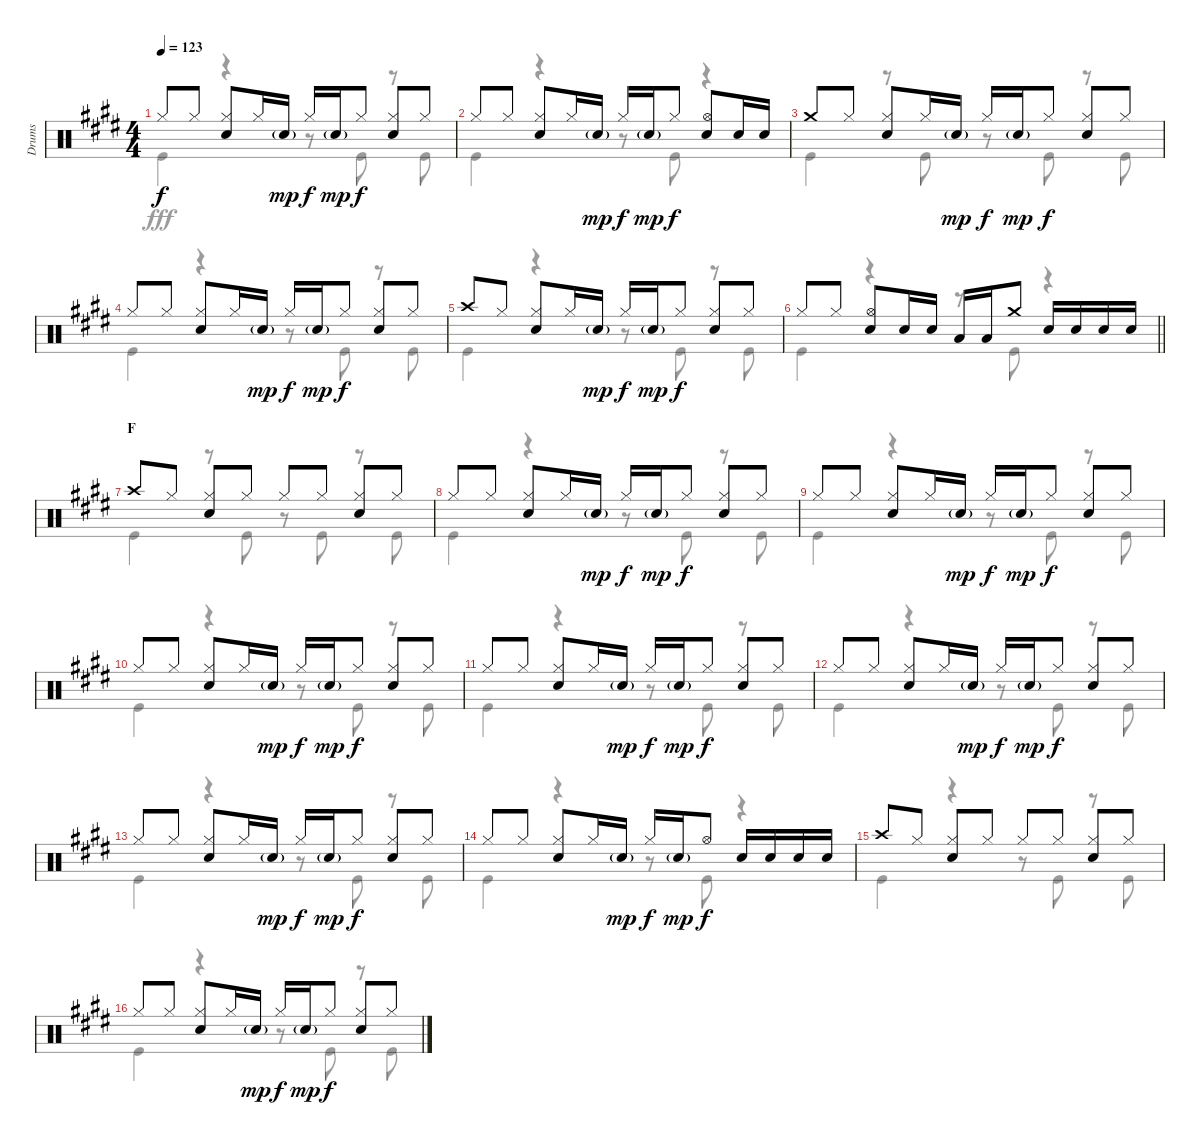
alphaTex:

\track ("Drums" "Drums") {instrument percussion}
\staff {score}
\articulation defaults
\voice
\ts (4 4)
\tempo 123
\clef neutral
\ks e "Hi-Hat (closed)".8{dy f} "Hi-Hat (closed)".8
("Hi-Hat (closed)" "Snare (hit) 2").8 "Hi-Hat (closed)".16 "Snare (hit) 2"{g}.16{dy mp} "Hi-Hat (closed)".16{dy f} "Snare (hit) 2"{g}.16{dy mp} "Hi-Hat (closed)".8{dy f} ("Hi-Hat (closed)" "Snare (hit) 2").8 "Hi-Hat (closed)".8 |
"Hi-Hat (closed)".8 "Hi-Hat (closed)".8 ("Hi-Hat (closed)" "Snare (hit) 2").8 "Hi-Hat (closed)".16 "Snare (hit) 2"{g}.16{dy mp} "Hi-Hat (closed)".16{dy f} "Snare (hit) 2"{g}.16{dy mp} "Hi-Hat (closed)".8{dy f} ("Hi-Hat (open)" "Snare (hit) 2").8 "Snare (hit) 2".16 "Snare (hit) 2".16 |
"Crash medium (hit)".8 "Hi-Hat (closed)".8 ("Hi-Hat (closed)" "Snare (hit) 2").8 "Hi-Hat (closed)".16 "Snare (hit) 2"{g}.16{dy mp} "Hi-Hat (closed)".16{dy f} "Snare (hit) 2"{g}.16{dy mp} "Hi-Hat (closed)".8{dy f} ("Hi-Hat (closed)" "Snare (hit) 2").8 "Hi-Hat (closed)".8 |
"Hi-Hat (closed)".8 "Hi-Hat (closed)".8 ("Hi-Hat (closed)" "Snare (hit) 2").8 "Hi-Hat (closed)".16 "Snare (hit) 2"{g}.16{dy mp} "Hi-Hat (closed)".16{dy f} "Snare (hit) 2"{g}.16{dy mp} "Hi-Hat (closed)".8{dy f} ("Hi-Hat (closed)" "Snare (hit) 2").8 "Hi-Hat (closed)".8 |
"Crash high (hit)".8 "Hi-Hat (closed)".8 ("Hi-Hat (closed)" "Snare (hit) 2").8 "Hi-Hat (closed)".16 "Snare (hit) 2"{g}.16{dy mp} "Hi-Hat (closed)".16{dy f} "Snare (hit) 2"{g}.16{dy mp} "Hi-Hat (closed)".8{dy f} ("Hi-Hat (closed)" "Snare (hit) 2").8 "Hi-Hat (closed)".8 |
\barLineRight lightlight "Hi-Hat (closed)".8 "Hi-Hat (closed)".8
("Hi-Hat (open)" "Snare (hit) 2").8 "Snare (hit) 2".16 "Snare (hit) 2".16 "Low Tom (hit)".16 "Low Tom (hit)".16 "Crash medium (hit)".8 "Snare (hit) 2".16 "Snare (hit) 2".16 "Snare (hit) 2".16 "Snare (hit) 2".16 |
\section ("" "F")
"Crash high (hit)".8 "Hi-Hat (closed)".8 ("Hi-Hat (closed)" "Snare (hit) 2").8 "Hi-Hat (closed)".8 "Hi-Hat (closed)".8 "Hi-Hat (closed)".8 ("Hi-Hat (closed)" "Snare (hit) 2").8 "Hi-Hat (closed)".8 |
"Hi-Hat (closed)".8 "Hi-Hat (closed)".8 ("Hi-Hat (closed)" "Snare (hit) 2").8 "Hi-Hat (closed)".16 "Snare (hit) 2"{g}.16{dy mp} "Hi-Hat (closed)".16{dy f} "Snare (hit) 2"{g}.16{dy mp} "Hi-Hat (closed)".8{dy f} ("Hi-Hat (closed)" "Snare (hit) 2").8 "Hi-Hat (closed)".8 |
"Hi-Hat (closed)".8 "Hi-Hat (closed)".8 ("Hi-Hat (closed)" "Snare (hit) 2").8 "Hi-Hat (closed)".16 "Snare (hit) 2"{g}.16{dy mp} "Hi-Hat (closed)".16{dy f} "Snare (hit) 2"{g}.16{dy mp} "Hi-Hat (closed)".8{dy f} ("Hi-Hat (closed)" "Snare (hit) 2").8 "Hi-Hat (closed)".8 |
"Hi-Hat (closed)".8 "Hi-Hat (closed)".8 ("Hi-Hat (closed)" "Snare (hit) 2").8 "Hi-Hat (closed)".16 "Snare (hit) 2"{g}.16{dy mp} "Hi-Hat (closed)".16{dy f} "Snare (hit) 2"{g}.16{dy mp} "Hi-Hat (closed)".8{dy f} ("Hi-Hat (closed)" "Snare (hit) 2").8 "Hi-Hat (closed)".8 |
"Hi-Hat (closed)".8 "Hi-Hat (closed)".8 ("Hi-Hat (closed)" "Snare (hit) 2").8 "Hi-Hat (closed)".16 "Snare (hit) 2"{g}.16{dy mp} "Hi-Hat (closed)".16{dy f} "Snare (hit) 2"{g}.16{dy mp} "Hi-Hat (closed)".8{dy f} ("Hi-Hat (closed)" "Snare (hit) 2").8 "Hi-Hat (closed)".8 |
"Hi-Hat (closed)".8 "Hi-Hat (closed)".8 ("Hi-Hat (closed)" "Snare (hit) 2").8 "Hi-Hat (closed)".16 "Snare (hit) 2"{g}.16{dy mp} "Hi-Hat (closed)".16{dy f} "Snare (hit) 2"{g}.16{dy mp} "Hi-Hat (closed)".8{dy f} ("Hi-Hat (closed)" "Snare (hit) 2").8 "Hi-Hat (closed)".8 |
"Hi-Hat (closed)".8 "Hi-Hat (closed)".8 ("Hi-Hat (closed)" "Snare (hit) 2").8 "Hi-Hat (closed)".16 "Snare (hit) 2"{g}.16{dy mp} "Hi-Hat (closed)".16{dy f} "Snare (hit) 2"{g}.16{dy mp} "Hi-Hat (closed)".8{dy f} ("Hi-Hat (closed)" "Snare (hit) 2").8 "Hi-Hat (closed)".8 |
"Hi-Hat (closed)".8 "Hi-Hat (closed)".8 ("Hi-Hat (closed)" "Snare (hit) 2").8 "Hi-Hat (closed)".16 "Snare (hit) 2"{g}.16{dy mp} "Hi-Hat (closed)".16{dy f} "Snare (hit) 2"{g}.16{dy mp} "Hi-Hat (open)".8{dy f} "Snare (hit) 2".16 "Snare (hit) 2".16 "Snare (hit) 2".16 "Snare (hit) 2".16 |
"Crash high (hit)".8 "Hi-Hat (closed)".8 ("Hi-Hat (closed)" "Snare (hit) 2").8 "Hi-Hat (closed)".8 "Hi-Hat (closed)".8 "Hi-Hat (closed)".8 ("Hi-Hat (closed)" "Snare (hit) 2").8 "Hi-Hat (closed)".8 |
"Hi-Hat (closed)".8 "Hi-Hat (closed)".8 ("Hi-Hat (closed)" "Snare (hit) 2").8 "Hi-Hat (closed)".16 "Snare (hit) 2"{g}.16{dy mp} "Hi-Hat (closed)".16{dy f} "Snare (hit) 2"{g}.16{dy mp} "Hi-Hat (closed)".8{dy f} ("Hi-Hat (closed)" "Snare (hit) 2").8 "Hi-Hat (closed)".8
\voice
\clef neutral
\ottava regular
\simile none
\ks e "Kick (hit)".4{dy fff}
r.4 r.8 "Kick (hit)".8 r.8 "Kick (hit)".8 |
"Kick (hit)".4 r.4 r.8 "Kick (hit)".8 r.4 |
"Kick (hit)".4 r.8 "Kick (hit)".8 r.8 "Kick (hit)".8 r.8 "Kick (hit)".8 |
"Kick (hit)".4 r.4 r.8 "Kick (hit)".8 r.8 "Kick (hit)".8 |
"Kick (hit)".4 r.4 r.8 "Kick (hit)".8 r.8 "Kick (hit)".8 |
\barLineRight lightlight "Kick (hit)".4
r.4 r.8 "Kick (hit)".8 r.4 |
"Kick (hit)".4 r.8 "Kick (hit)".8 r.8 "Kick (hit)".8 r.8 "Kick (hit)".8 |
"Kick (hit)".4 r.4 r.8 "Kick (hit)".8 r.8 "Kick (hit)".8 |
"Kick (hit)".4 r.4 r.8 "Kick (hit)".8 r.8 "Kick (hit)".8 |
"Kick (hit)".4 r.4 r.8 "Kick (hit)".8 r.8 "Kick (hit)".8 |
"Kick (hit)".4 r.4 r.8 "Kick (hit)".8 r.8 "Kick (hit)".8 |
"Kick (hit)".4 r.4 r.8 "Kick (hit)".8 r.8 "Kick (hit)".8 |
"Kick (hit)".4 r.4 r.8 "Kick (hit)".8 r.8 "Kick (hit)".8 |
"Kick (hit)".4 r.4 r.8 "Kick (hit)".8 r.4 |
"Kick (hit)".4 r.4 r.8 "Kick (hit)".8 r.8 "Kick (hit)".8 |
"Kick (hit)".4 r.4 r.8 "Kick (hit)".8 r.8 "Kick (hit)".8
